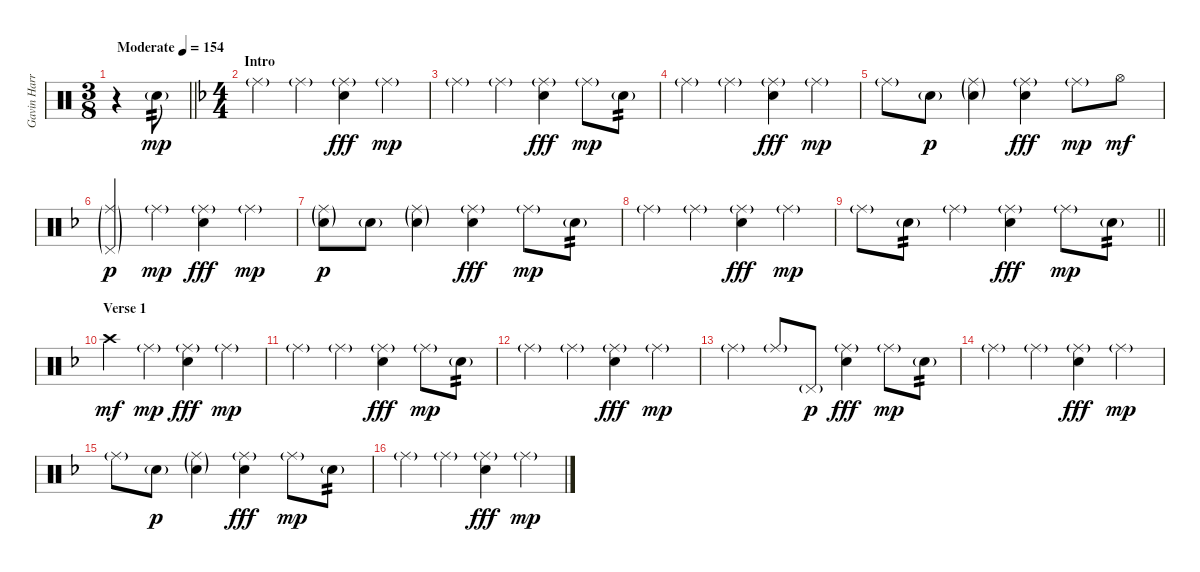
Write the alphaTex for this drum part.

\track ("Gavin Harrison Drums" "Gavin Harr") {instrument percussion}
\staff {score}
\articulation defaults
\ts (3 8)
\tempo (154 "Moderate")
\clef neutral
\barLineRight lightlight
\ks c
r.4{dy mp} "Electric Snare (hit)"{g}.8{tp 2} |
\ts (4 4)
\section ("" "Intro")
\ks dminor "Ride (middle)"{g}.4 "Ride (middle)"{g}.4
("Ride (middle)"{g} "Electric Snare (hit)").4{dy fff} "Ride (middle)"{g}.4{dy mp} |
"Ride (middle)"{g}.4 "Ride (middle)"{g}.4 ("Ride (middle)"{g} "Electric Snare (hit)").4{dy fff} "Ride (middle)"{g}.8{dy mp} "Electric Snare (hit)"{g}.8{tp 2} |
"Ride (middle)"{g}.4 "Ride (middle)"{g}.4 ("Ride (middle)"{g} "Electric Snare (hit)").4{dy fff} "Ride (middle)"{g}.4{dy mp} |
"Ride (middle)"{g}.8 "Electric Snare (hit)"{g}.8{dy p} ("Ride (middle)"{g} "Electric Snare (hit)"{g}).4 ("Ride (middle)"{g} "Electric Snare (hit)").4{dy fff} "Ride (middle)"{g}.8{dy mp} "Hi-Hat (open)".8{dy mf} |
("Ride (middle)"{g} "Pedal Hi-Hat (hit)"{g}).4{dy p} "Ride (middle)"{g}.4{dy mp} ("Ride (middle)"{g} "Electric Snare (hit)").4{dy fff} "Ride (middle)"{g}.4{dy mp} |
("Ride (middle)"{g} "Electric Snare (hit)"{g}).8{dy p} "Electric Snare (hit)"{g}.8 ("Ride (middle)"{g} "Electric Snare (hit)"{g}).4 ("Ride (middle)"{g} "Electric Snare (hit)").4{dy fff} "Ride (middle)"{g}.8{dy mp} "Electric Snare (hit)"{g}.8{tp 2} |
"Ride (middle)"{g}.4 "Ride (middle)"{g}.4 ("Ride (middle)"{g} "Electric Snare (hit)").4{dy fff} "Ride (middle)"{g}.4{dy mp} |
\barLineRight lightlight "Ride (middle)"{g}.8 "Electric Snare (hit)"{g}.8{tp 2} "Ride (middle)"{g}.4
("Ride (middle)"{g} "Electric Snare (hit)").4{dy fff} "Ride (middle)"{g}.8{dy mp} "Electric Snare (hit)"{g}.8{tp 2} |
\section ("" "Verse 1")
"Crash high (hit)".4{dy mf} "Ride (middle)"{g}.4{dy mp} ("Ride (middle)"{g} "Electric Snare (hit)").4{dy fff} "Ride (middle)"{g}.4{dy mp} |
"Ride (middle)"{g}.4 "Ride (middle)"{g}.4 ("Ride (middle)"{g} "Electric Snare (hit)").4{dy fff} "Ride (middle)"{g}.8{dy mp} "Electric Snare (hit)"{g}.8{tp 2} |
"Ride (middle)"{g}.4 "Ride (middle)"{g}.4 ("Ride (middle)"{g} "Electric Snare (hit)").4{dy fff} "Ride (middle)"{g}.4{dy mp} |
"Ride (middle)"{g}.4 "Ride (middle)"{g}.8 "Pedal Hi-Hat (hit)"{g}.8{dy p} ("Ride (middle)"{g} "Electric Snare (hit)").4{dy fff} "Ride (middle)"{g}.8{dy mp} "Electric Snare (hit)"{g}.8{tp 2} |
"Ride (middle)"{g}.4 "Ride (middle)"{g}.4 ("Ride (middle)"{g} "Electric Snare (hit)").4{dy fff} "Ride (middle)"{g}.4{dy mp} |
"Ride (middle)"{g}.8 "Electric Snare (hit)"{g}.8{dy p} ("Ride (middle)"{g} "Electric Snare (hit)"{g}).4 ("Ride (middle)"{g} "Electric Snare (hit)").4{dy fff} "Ride (middle)"{g}.8{dy mp} "Electric Snare (hit)"{g}.8{tp 2} |
"Ride (middle)"{g}.4 "Ride (middle)"{g}.4 ("Ride (middle)"{g} "Electric Snare (hit)").4{dy fff} "Ride (middle)"{g}.4{dy mp}
